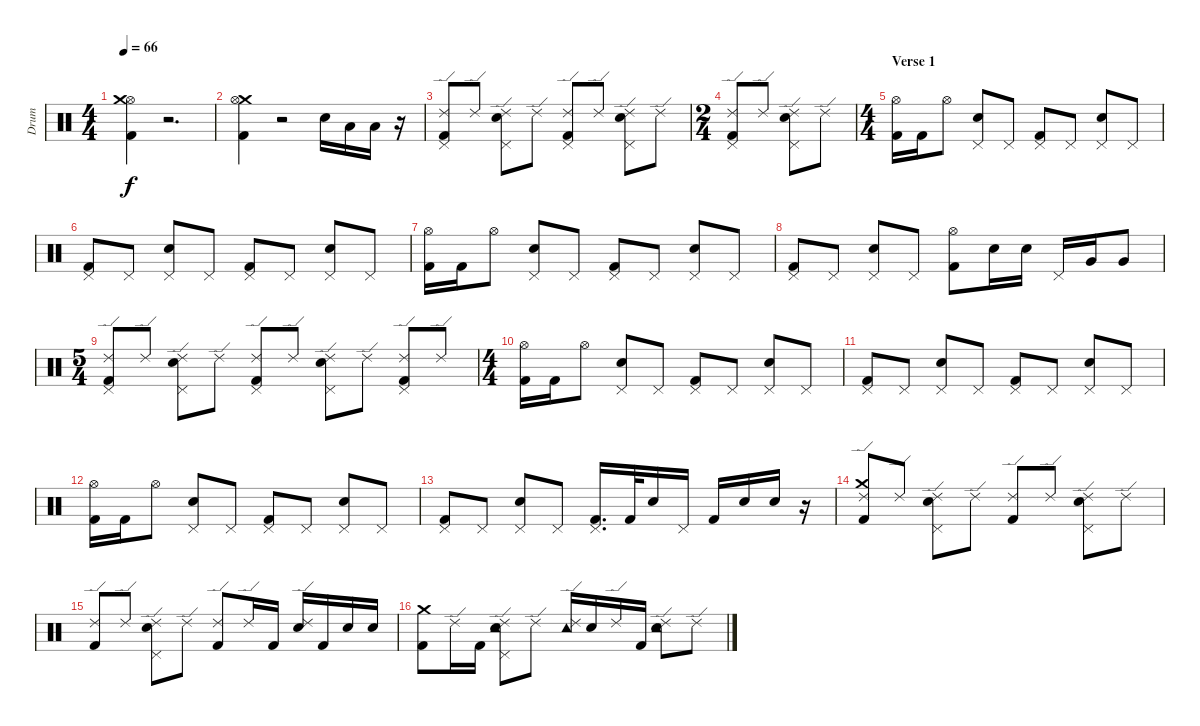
\track (" Drum" " Drum") {instrument percussion}
\staff {score}
\articulation defaults
\ts (4 4)
\tempo 66
\clef neutral
\ks c
("Kick (hit) 2" "Hi-Hat (open)" "Crash medium (hit)").4{dy f} r.2{d} |
("Crash medium (hit)" "Hi-Hat (open)" "Kick (hit) 2").4 r.2 "Electric Snare (hit)".16 "Low Tom (hit)".16 "Low Tom (hit)".16 r.16 |
("Pedal Hi-Hat (hit)" "Ride (edge) 2" "Kick (hit) 2").8 "Ride (edge) 2".8 ("Pedal Hi-Hat (hit)" "Electric Snare (hit)" "Ride (edge) 2").8 "Ride (edge) 2".8 ("Pedal Hi-Hat (hit)" "Kick (hit) 2" "Ride (edge) 2").8 "Ride (edge) 2".8 ("Pedal Hi-Hat (hit)" "Electric Snare (hit)" "Ride (edge) 2").8 "Ride (edge) 2".8 |
\ts (2 4)
("Pedal Hi-Hat (hit)" "Ride (edge) 2" "Kick (hit) 2").8 "Ride (edge) 2".8 ("Pedal Hi-Hat (hit)" "Electric Snare (hit)" "Ride (edge) 2").8 "Ride (edge) 2".8 |
\ts (4 4)
\section ("" "Verse 1")
("Kick (hit) 2" "Hi-Hat (open)").16 "Kick (hit) 2".16 "Hi-Hat (open)".8 ("Pedal Hi-Hat (hit)" "Electric Snare (hit)").8 "Pedal Hi-Hat (hit)".8 ("Kick (hit) 2" "Pedal Hi-Hat (hit)").8 "Pedal Hi-Hat (hit)".8 ("Electric Snare (hit)" "Pedal Hi-Hat (hit)").8 "Pedal Hi-Hat (hit)".8 |
("Kick (hit) 2" "Pedal Hi-Hat (hit)").8 "Pedal Hi-Hat (hit)".8 ("Electric Snare (hit)" "Pedal Hi-Hat (hit)").8 "Pedal Hi-Hat (hit)".8 ("Kick (hit) 2" "Pedal Hi-Hat (hit)").8 "Pedal Hi-Hat (hit)".8 ("Electric Snare (hit)" "Pedal Hi-Hat (hit)").8 "Pedal Hi-Hat (hit)".8 |
("Kick (hit) 2" "Hi-Hat (open)").16 "Kick (hit) 2".16 "Hi-Hat (open)".8 ("Pedal Hi-Hat (hit)" "Electric Snare (hit)").8 "Pedal Hi-Hat (hit)".8 ("Kick (hit) 2" "Pedal Hi-Hat (hit)").8 "Pedal Hi-Hat (hit)".8 ("Electric Snare (hit)" "Pedal Hi-Hat (hit)").8 "Pedal Hi-Hat (hit)".8 |
("Kick (hit) 2" "Pedal Hi-Hat (hit)").8 "Pedal Hi-Hat (hit)".8 ("Electric Snare (hit)" "Pedal Hi-Hat (hit)").8 "Pedal Hi-Hat (hit)".8 ("Hi-Hat (open)" "Kick (hit) 2").8 "Electric Snare (hit)".16 "Electric Snare (hit)".16 "Pedal Hi-Hat (hit)".16 "Very Low Tom (hit)".16 "Very Low Tom (hit)".8 |
\ts (5 4)
("Pedal Hi-Hat (hit)" "Ride (edge) 2" "Kick (hit) 2").8 "Ride (edge) 2".8 ("Pedal Hi-Hat (hit)" "Electric Snare (hit)" "Ride (edge) 2").8 "Ride (edge) 2".8 ("Pedal Hi-Hat (hit)" "Kick (hit) 2" "Ride (edge) 2").8 "Ride (edge) 2".8 ("Pedal Hi-Hat (hit)" "Electric Snare (hit)" "Ride (edge) 2").8 "Ride (edge) 2".8 ("Pedal Hi-Hat (hit)" "Ride (edge) 2" "Kick (hit) 2").8 "Ride (edge) 2".8 |
\ts (4 4)
("Kick (hit) 2" "Hi-Hat (open)").16 "Kick (hit) 2".16 "Hi-Hat (open)".8 ("Pedal Hi-Hat (hit)" "Electric Snare (hit)").8 "Pedal Hi-Hat (hit)".8 ("Kick (hit) 2" "Pedal Hi-Hat (hit)").8 "Pedal Hi-Hat (hit)".8 ("Electric Snare (hit)" "Pedal Hi-Hat (hit)").8 "Pedal Hi-Hat (hit)".8 |
("Kick (hit) 2" "Pedal Hi-Hat (hit)").8 "Pedal Hi-Hat (hit)".8 ("Electric Snare (hit)" "Pedal Hi-Hat (hit)").8 "Pedal Hi-Hat (hit)".8 ("Kick (hit) 2" "Pedal Hi-Hat (hit)").8 "Pedal Hi-Hat (hit)".8 ("Electric Snare (hit)" "Pedal Hi-Hat (hit)").8 "Pedal Hi-Hat (hit)".8 |
("Kick (hit) 2" "Hi-Hat (open)").16 "Kick (hit) 2".16 "Hi-Hat (open)".8 ("Pedal Hi-Hat (hit)" "Electric Snare (hit)").8 "Pedal Hi-Hat (hit)".8 ("Kick (hit) 2" "Pedal Hi-Hat (hit)").8 "Pedal Hi-Hat (hit)".8 ("Electric Snare (hit)" "Pedal Hi-Hat (hit)").8 "Pedal Hi-Hat (hit)".8 |
("Kick (hit) 2" "Pedal Hi-Hat (hit)").8 "Pedal Hi-Hat (hit)".8 ("Electric Snare (hit)" "Pedal Hi-Hat (hit)").8 "Pedal Hi-Hat (hit)".8 ("Pedal Hi-Hat (hit)" "Kick (hit) 2").16{d} "Kick (hit) 2".32 "Electric Snare (hit)".16 "Pedal Hi-Hat (hit)".16 "Kick (hit) 2".16 "Electric Snare (hit)".16 "Electric Snare (hit)".16 r.16 |
("Crash medium (hit)" "Kick (hit) 2" "Ride (edge) 2").8 "Ride (edge) 2".8 ("Pedal Hi-Hat (hit)" "Electric Snare (hit)" "Ride (edge) 2").8 "Ride (edge) 2".8 ("Kick (hit) 2" "Ride (edge) 2").8 "Ride (edge) 2".8 ("Pedal Hi-Hat (hit)" "Electric Snare (hit)" "Ride (edge) 2").8 "Ride (edge) 2".8 |
("Kick (hit) 2" "Ride (edge) 2").8 "Ride (edge) 2".8 ("Pedal Hi-Hat (hit)" "Electric Snare (hit)" "Ride (edge) 2").8 "Ride (edge) 2".8 ("Kick (hit) 2" "Ride (edge) 2").8 "Ride (edge) 2".16 "Kick (hit) 2".16 ("Ride (edge) 2" "Electric Snare (hit)").16 "Kick (hit) 2".16 "Electric Snare (hit)".16 "Electric Snare (hit)".16 |
("Crash medium (hit)" "Kick (hit) 2").8 "Ride (edge) 2".16 "Kick (hit) 2".16 ("Tambourine (hit)" "Pedal Hi-Hat (hit)" "Electric Snare (hit)" "Ride (edge) 2").8 "Ride (edge) 2".8 ("Tambourine (hit)" "Ride (edge) 2").16 "Electric Snare (hit)".16 "Ride (edge) 2".16 "Kick (hit) 2".16 ("Tambourine (hit)" "Electric Snare (hit)" "Ride (edge) 2").8 "Ride (edge) 2".8
